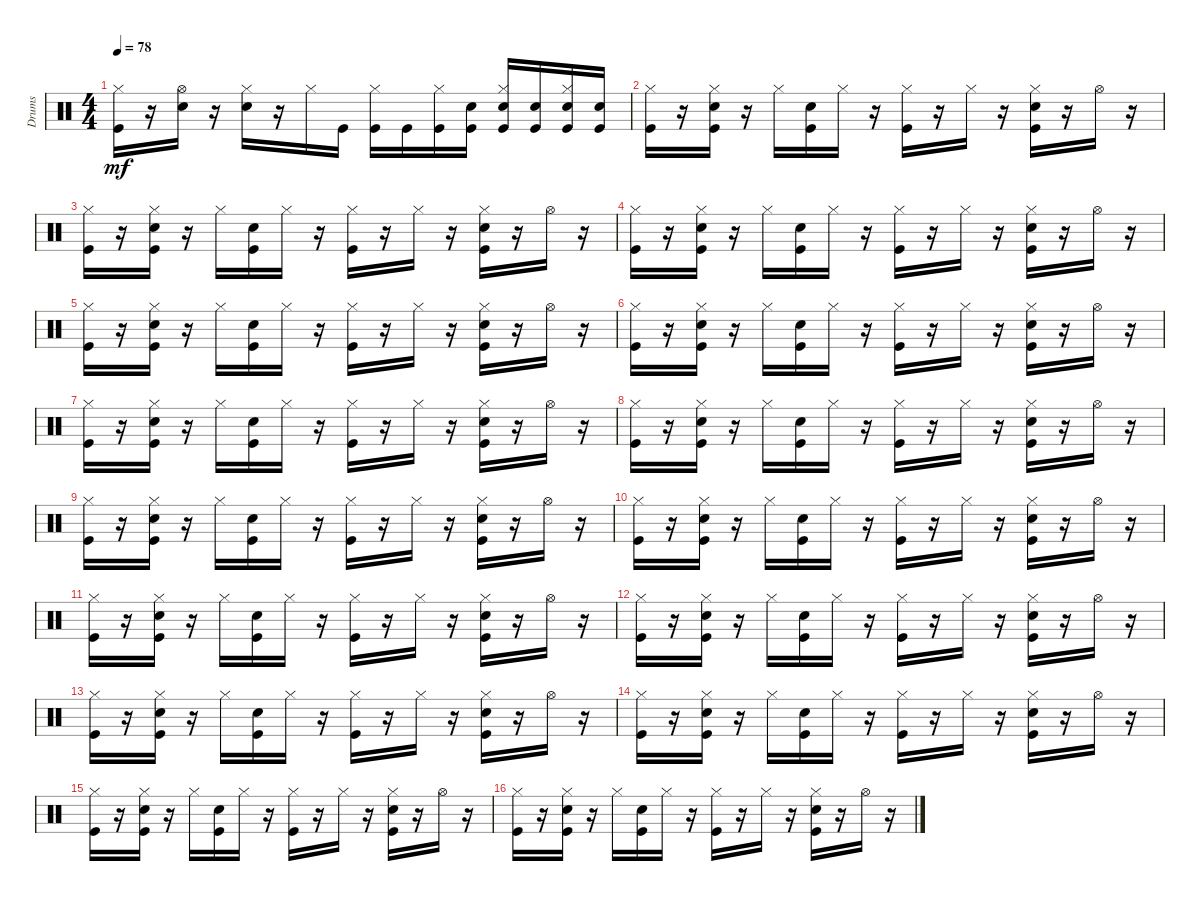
\track ("Drums               " "Drums     ") {instrument percussion}
\staff {score}
\articulation defaults
\ts (4 4)
\tempo 78
\clef neutral
\ks c
("Kick (hit)" "Hi-Hat (closed)").16{dy mf} r.16 ("Snare (hit) 2" "Hi-Hat (open)").16 r.16 ("Snare (hit) 2" "Hi-Hat (closed)").16 r.16 "Hi-Hat (closed)".16 "Kick (hit)".16 ("Kick (hit)" "Hi-Hat (closed)").16 "Kick (hit)".16 ("Kick (hit)" "Hi-Hat (closed)").16 ("Kick (hit)" "Snare (hit) 2").16 ("Kick (hit)" "Snare (hit) 2" "Hi-Hat (closed)").16 ("Kick (hit)" "Snare (hit) 2").16 ("Kick (hit)" "Snare (hit) 2" "Hi-Hat (closed)").16 ("Kick (hit)" "Snare (hit) 2").16 |
("Kick (hit)" "Hi-Hat (closed)").16 r.16 ("Kick (hit)" "Snare (hit) 2" "Hi-Hat (closed)").16 r.16 "Hi-Hat (closed)".16 ("Kick (hit)" "Snare (hit) 2").16 "Hi-Hat (closed)".16 r.16 ("Kick (hit)" "Hi-Hat (closed)").16 r.16 "Hi-Hat (closed)".16 r.16 ("Kick (hit)" "Snare (hit) 2" "Hi-Hat (closed)").16 r.16 "Hi-Hat (open)".16 r.16 |
("Kick (hit)" "Hi-Hat (closed)").16 r.16 ("Kick (hit)" "Snare (hit) 2" "Hi-Hat (closed)").16 r.16 "Hi-Hat (closed)".16 ("Kick (hit)" "Snare (hit) 2").16 "Hi-Hat (closed)".16 r.16 ("Kick (hit)" "Hi-Hat (closed)").16 r.16 "Hi-Hat (closed)".16 r.16 ("Kick (hit)" "Snare (hit) 2" "Hi-Hat (closed)").16 r.16 "Hi-Hat (open)".16 r.16 |
("Kick (hit)" "Hi-Hat (closed)").16 r.16 ("Kick (hit)" "Snare (hit) 2" "Hi-Hat (closed)").16 r.16 "Hi-Hat (closed)".16 ("Kick (hit)" "Snare (hit) 2").16 "Hi-Hat (closed)".16 r.16 ("Kick (hit)" "Hi-Hat (closed)").16 r.16 "Hi-Hat (closed)".16 r.16 ("Kick (hit)" "Snare (hit) 2" "Hi-Hat (closed)").16 r.16 "Hi-Hat (open)".16 r.16 |
("Kick (hit)" "Hi-Hat (closed)").16 r.16 ("Kick (hit)" "Snare (hit) 2" "Hi-Hat (closed)").16 r.16 "Hi-Hat (closed)".16 ("Kick (hit)" "Snare (hit) 2").16 "Hi-Hat (closed)".16 r.16 ("Kick (hit)" "Hi-Hat (closed)").16 r.16 "Hi-Hat (closed)".16 r.16 ("Kick (hit)" "Snare (hit) 2" "Hi-Hat (closed)").16 r.16 "Hi-Hat (open)".16 r.16 |
("Kick (hit)" "Hi-Hat (closed)").16 r.16 ("Kick (hit)" "Snare (hit) 2" "Hi-Hat (closed)").16 r.16 "Hi-Hat (closed)".16 ("Kick (hit)" "Snare (hit) 2").16 "Hi-Hat (closed)".16 r.16 ("Kick (hit)" "Hi-Hat (closed)").16 r.16 "Hi-Hat (closed)".16 r.16 ("Kick (hit)" "Snare (hit) 2" "Hi-Hat (closed)").16 r.16 "Hi-Hat (open)".16 r.16 |
("Kick (hit)" "Hi-Hat (closed)").16 r.16 ("Kick (hit)" "Snare (hit) 2" "Hi-Hat (closed)").16 r.16 "Hi-Hat (closed)".16 ("Kick (hit)" "Snare (hit) 2").16 "Hi-Hat (closed)".16 r.16 ("Kick (hit)" "Hi-Hat (closed)").16 r.16 "Hi-Hat (closed)".16 r.16 ("Kick (hit)" "Snare (hit) 2" "Hi-Hat (closed)").16 r.16 "Hi-Hat (open)".16 r.16 |
("Kick (hit)" "Hi-Hat (closed)").16 r.16 ("Kick (hit)" "Snare (hit) 2" "Hi-Hat (closed)").16 r.16 "Hi-Hat (closed)".16 ("Kick (hit)" "Snare (hit) 2").16 "Hi-Hat (closed)".16 r.16 ("Kick (hit)" "Hi-Hat (closed)").16 r.16 "Hi-Hat (closed)".16 r.16 ("Kick (hit)" "Snare (hit) 2" "Hi-Hat (closed)").16 r.16 "Hi-Hat (open)".16 r.16 |
("Kick (hit)" "Hi-Hat (closed)").16 r.16 ("Kick (hit)" "Snare (hit) 2" "Hi-Hat (closed)").16 r.16 "Hi-Hat (closed)".16 ("Kick (hit)" "Snare (hit) 2").16 "Hi-Hat (closed)".16 r.16 ("Kick (hit)" "Hi-Hat (closed)").16 r.16 "Hi-Hat (closed)".16 r.16 ("Kick (hit)" "Snare (hit) 2" "Hi-Hat (closed)").16 r.16 "Hi-Hat (open)".16 r.16 |
("Kick (hit)" "Hi-Hat (closed)").16 r.16 ("Kick (hit)" "Snare (hit) 2" "Hi-Hat (closed)").16 r.16 "Hi-Hat (closed)".16 ("Kick (hit)" "Snare (hit) 2").16 "Hi-Hat (closed)".16 r.16 ("Kick (hit)" "Hi-Hat (closed)").16 r.16 "Hi-Hat (closed)".16 r.16 ("Kick (hit)" "Snare (hit) 2" "Hi-Hat (closed)").16 r.16 "Hi-Hat (open)".16 r.16 |
("Kick (hit)" "Hi-Hat (closed)").16 r.16 ("Kick (hit)" "Snare (hit) 2" "Hi-Hat (closed)").16 r.16 "Hi-Hat (closed)".16 ("Kick (hit)" "Snare (hit) 2").16 "Hi-Hat (closed)".16 r.16 ("Kick (hit)" "Hi-Hat (closed)").16 r.16 "Hi-Hat (closed)".16 r.16 ("Kick (hit)" "Snare (hit) 2" "Hi-Hat (closed)").16 r.16 "Hi-Hat (open)".16 r.16 |
("Kick (hit)" "Hi-Hat (closed)").16 r.16 ("Kick (hit)" "Snare (hit) 2" "Hi-Hat (closed)").16 r.16 "Hi-Hat (closed)".16 ("Kick (hit)" "Snare (hit) 2").16 "Hi-Hat (closed)".16 r.16 ("Kick (hit)" "Hi-Hat (closed)").16 r.16 "Hi-Hat (closed)".16 r.16 ("Kick (hit)" "Snare (hit) 2" "Hi-Hat (closed)").16 r.16 "Hi-Hat (open)".16 r.16 |
("Kick (hit)" "Hi-Hat (closed)").16 r.16 ("Kick (hit)" "Snare (hit) 2" "Hi-Hat (closed)").16 r.16 "Hi-Hat (closed)".16 ("Kick (hit)" "Snare (hit) 2").16 "Hi-Hat (closed)".16 r.16 ("Kick (hit)" "Hi-Hat (closed)").16 r.16 "Hi-Hat (closed)".16 r.16 ("Kick (hit)" "Snare (hit) 2" "Hi-Hat (closed)").16 r.16 "Hi-Hat (open)".16 r.16 |
("Kick (hit)" "Hi-Hat (closed)").16 r.16 ("Kick (hit)" "Snare (hit) 2" "Hi-Hat (closed)").16 r.16 "Hi-Hat (closed)".16 ("Kick (hit)" "Snare (hit) 2").16 "Hi-Hat (closed)".16 r.16 ("Kick (hit)" "Hi-Hat (closed)").16 r.16 "Hi-Hat (closed)".16 r.16 ("Kick (hit)" "Snare (hit) 2" "Hi-Hat (closed)").16 r.16 "Hi-Hat (open)".16 r.16 |
("Kick (hit)" "Hi-Hat (closed)").16 r.16 ("Kick (hit)" "Snare (hit) 2" "Hi-Hat (closed)").16 r.16 "Hi-Hat (closed)".16 ("Kick (hit)" "Snare (hit) 2").16 "Hi-Hat (closed)".16 r.16 ("Kick (hit)" "Hi-Hat (closed)").16 r.16 "Hi-Hat (closed)".16 r.16 ("Kick (hit)" "Snare (hit) 2" "Hi-Hat (closed)").16 r.16 "Hi-Hat (open)".16 r.16 |
("Kick (hit)" "Hi-Hat (closed)").16 r.16 ("Kick (hit)" "Snare (hit) 2" "Hi-Hat (closed)").16 r.16 "Hi-Hat (closed)".16 ("Kick (hit)" "Snare (hit) 2").16 "Hi-Hat (closed)".16 r.16 ("Kick (hit)" "Hi-Hat (closed)").16 r.16 "Hi-Hat (closed)".16 r.16 ("Kick (hit)" "Snare (hit) 2" "Hi-Hat (closed)").16 r.16 "Hi-Hat (open)".16 r.16
